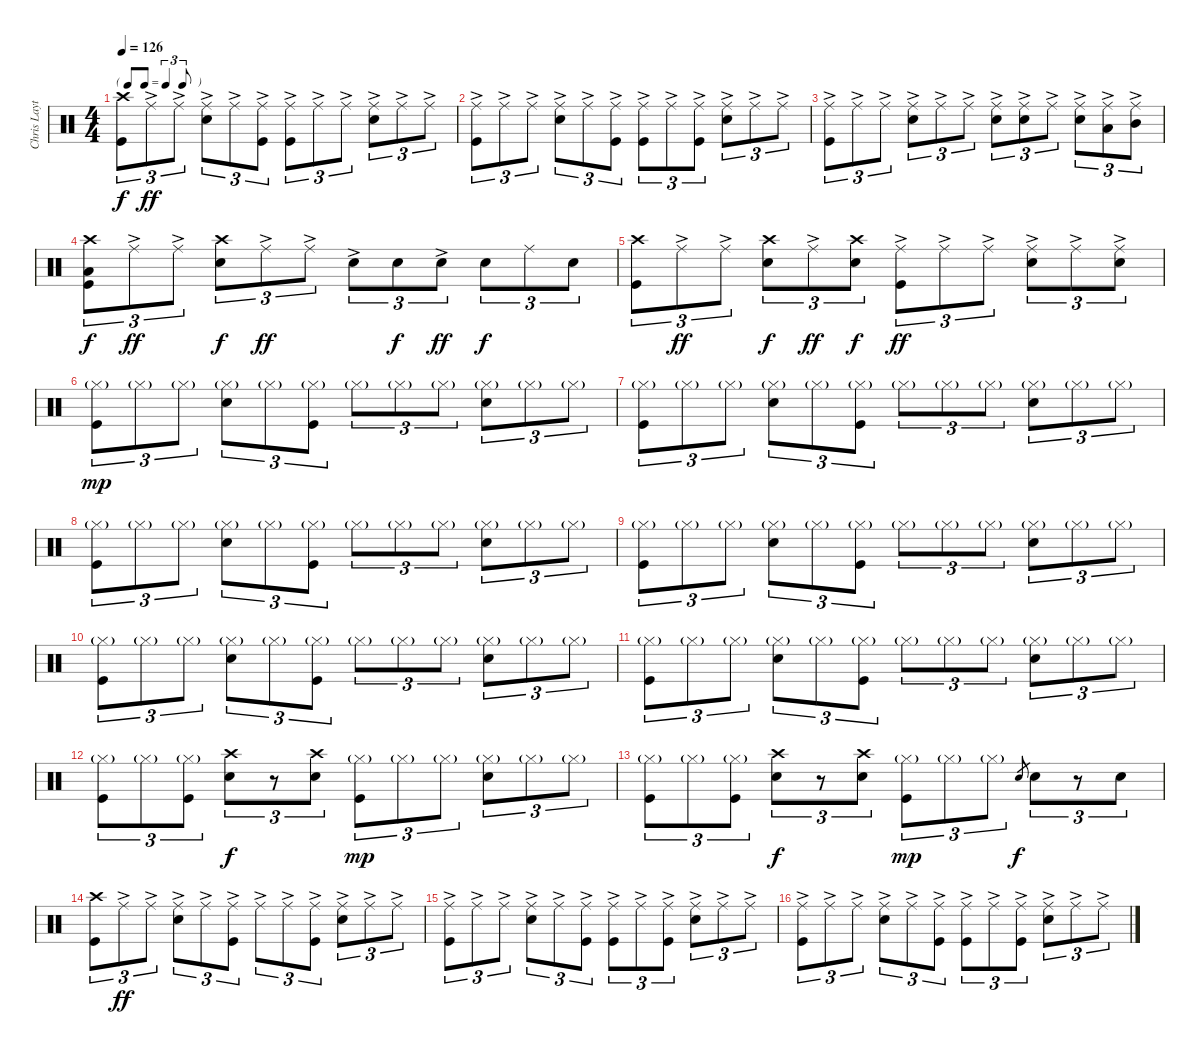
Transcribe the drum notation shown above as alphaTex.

\track ("Chris Layton" "Chris Layt") {instrument percussion}
\staff {score}
\articulation defaults
\ts (4 4)
\tf triplet8th
\tempo 126
\clef neutral
\ks c
("Crash high (hit)" "Kick (hit)").8{tu (3 2) dy f} "Ride (middle)"{ac}.8{tu (3 2) dy ff} "Ride (middle)"{ac}.8{tu (3 2)} ("Ride (middle)"{ac} "Electric Snare (hit)").8{tu (3 2)} "Ride (middle)"{ac}.8{tu (3 2)} ("Ride (middle)"{ac} "Kick (hit)").8{tu (3 2)} ("Ride (middle)"{ac} "Kick (hit)").8{tu (3 2)} "Ride (middle)"{ac}.8{tu (3 2)} "Ride (middle)"{ac}.8{tu (3 2)} ("Ride (middle)"{ac} "Electric Snare (hit)").8{tu (3 2)} "Ride (middle)"{ac}.8{tu (3 2)} "Ride (middle)"{ac}.8{tu (3 2)} |
("Ride (middle)"{ac} "Kick (hit)").8{tu (3 2)} "Ride (middle)"{ac}.8{tu (3 2)} "Ride (middle)"{ac}.8{tu (3 2)} ("Ride (middle)"{ac} "Electric Snare (hit)").8{tu (3 2)} "Ride (middle)"{ac}.8{tu (3 2)} ("Ride (middle)"{ac} "Kick (hit)").8{tu (3 2)} ("Ride (middle)"{ac} "Kick (hit)").8{tu (3 2)} "Ride (middle)"{ac}.8{tu (3 2)} ("Ride (middle)"{ac} "Kick (hit)").8{tu (3 2)} ("Ride (middle)"{ac} "Electric Snare (hit)").8{tu (3 2)} "Ride (middle)"{ac}.8{tu (3 2)} "Ride (middle)"{ac}.8{tu (3 2)} |
("Ride (middle)"{ac} "Kick (hit)").8{tu (3 2)} "Ride (middle)"{ac}.8{tu (3 2)} "Ride (middle)"{ac}.8{tu (3 2)} ("Ride (middle)"{ac} "Electric Snare (hit)").8{tu (3 2)} "Ride (middle)"{ac}.8{tu (3 2)} "Ride (middle)"{ac}.8{tu (3 2)} ("Ride (middle)"{ac} "Electric Snare (hit)"{ac}).8{tu (3 2)} ("Ride (middle)"{ac} "Electric Snare (hit)").8{tu (3 2)} "Ride (middle)"{ac}.8{tu (3 2)} ("Ride (middle)"{ac} "Electric Snare (hit)").8{tu (3 2)} ("Ride (middle)"{ac} "Low Tom (hit)"{ac}).8{tu (3 2)} ("Ride (middle)"{ac} "Mid Tom (hit)"{ac}).8{tu (3 2)} |
("Crash high (hit)" "Low Tom (hit)" "Kick (hit)").8{tu (3 2) dy f} "Ride (middle)"{ac}.8{tu (3 2) dy ff} "Ride (middle)"{ac}.8{tu (3 2)} ("Crash high (hit)" "Electric Snare (hit)").8{tu (3 2) dy f} "Ride (middle)"{ac}.8{tu (3 2) dy ff} "Ride (middle)"{ac}.8{tu (3 2)} "Electric Snare (hit)"{ac}.8{tu (3 2)} "Electric Snare (hit)".8{tu (3 2) dy f} "Electric Snare (hit)"{ac}.8{tu (3 2) dy ff} "Electric Snare (hit)".8{tu (3 2) dy f} "Ride (middle)".8{tu (3 2)} "Electric Snare (hit)".8{tu (3 2)} |
("Crash high (hit)" "Kick (hit)").8{tu (3 2)} "Ride (middle)"{ac}.8{tu (3 2) dy ff} "Ride (middle)"{ac}.8{tu (3 2)} ("Crash high (hit)" "Electric Snare (hit)").8{tu (3 2) dy f} "Ride (middle)"{ac}.8{tu (3 2) dy ff} ("Crash high (hit)" "Electric Snare (hit)").8{tu (3 2) dy f} ("Ride (middle)"{ac} "Kick (hit)").8{tu (3 2) dy ff} "Ride (middle)"{ac}.8{tu (3 2)} "Ride (middle)"{ac}.8{tu (3 2)} ("Ride (middle)"{ac} "Electric Snare (hit)").8{tu (3 2)} "Ride (middle)"{ac}.8{tu (3 2)} ("Ride (middle)"{ac} "Electric Snare (hit)").8{tu (3 2)} |
("Hi-Hat (closed)"{g} "Kick (hit)").8{tu (3 2) dy mp} "Hi-Hat (closed)"{g}.8{tu (3 2)} "Hi-Hat (closed)"{g}.8{tu (3 2)} ("Hi-Hat (closed)"{g} "Electric Snare (hit)").8{tu (3 2)} "Hi-Hat (closed)"{g}.8{tu (3 2)} ("Hi-Hat (closed)"{g} "Kick (hit)").8{tu (3 2)} "Hi-Hat (closed)"{g}.8{tu (3 2)} "Hi-Hat (closed)"{g}.8{tu (3 2)} "Hi-Hat (closed)"{g}.8{tu (3 2)} ("Hi-Hat (closed)"{g} "Electric Snare (hit)").8{tu (3 2)} "Hi-Hat (closed)"{g}.8{tu (3 2)} "Hi-Hat (closed)"{g}.8{tu (3 2)} |
("Hi-Hat (closed)"{g} "Kick (hit)").8{tu (3 2)} "Hi-Hat (closed)"{g}.8{tu (3 2)} "Hi-Hat (closed)"{g}.8{tu (3 2)} ("Hi-Hat (closed)"{g} "Electric Snare (hit)").8{tu (3 2)} "Hi-Hat (closed)"{g}.8{tu (3 2)} ("Hi-Hat (closed)"{g} "Kick (hit)").8{tu (3 2)} "Hi-Hat (closed)"{g}.8{tu (3 2)} "Hi-Hat (closed)"{g}.8{tu (3 2)} "Hi-Hat (closed)"{g}.8{tu (3 2)} ("Hi-Hat (closed)"{g} "Electric Snare (hit)").8{tu (3 2)} "Hi-Hat (closed)"{g}.8{tu (3 2)} "Hi-Hat (closed)"{g}.8{tu (3 2)} |
("Hi-Hat (closed)"{g} "Kick (hit)").8{tu (3 2)} "Hi-Hat (closed)"{g}.8{tu (3 2)} "Hi-Hat (closed)"{g}.8{tu (3 2)} ("Hi-Hat (closed)"{g} "Electric Snare (hit)").8{tu (3 2)} "Hi-Hat (closed)"{g}.8{tu (3 2)} ("Hi-Hat (closed)"{g} "Kick (hit)").8{tu (3 2)} "Hi-Hat (closed)"{g}.8{tu (3 2)} "Hi-Hat (closed)"{g}.8{tu (3 2)} "Hi-Hat (closed)"{g}.8{tu (3 2)} ("Hi-Hat (closed)"{g} "Electric Snare (hit)").8{tu (3 2)} "Hi-Hat (closed)"{g}.8{tu (3 2)} "Hi-Hat (closed)"{g}.8{tu (3 2)} |
("Hi-Hat (closed)"{g} "Kick (hit)").8{tu (3 2)} "Hi-Hat (closed)"{g}.8{tu (3 2)} "Hi-Hat (closed)"{g}.8{tu (3 2)} ("Hi-Hat (closed)"{g} "Electric Snare (hit)").8{tu (3 2)} "Hi-Hat (closed)"{g}.8{tu (3 2)} ("Hi-Hat (closed)"{g} "Kick (hit)").8{tu (3 2)} "Hi-Hat (closed)"{g}.8{tu (3 2)} "Hi-Hat (closed)"{g}.8{tu (3 2)} "Hi-Hat (closed)"{g}.8{tu (3 2)} ("Hi-Hat (closed)"{g} "Electric Snare (hit)").8{tu (3 2)} "Hi-Hat (closed)"{g}.8{tu (3 2)} "Hi-Hat (closed)"{g}.8{tu (3 2)} |
("Hi-Hat (closed)"{g} "Kick (hit)").8{tu (3 2)} "Hi-Hat (closed)"{g}.8{tu (3 2)} "Hi-Hat (closed)"{g}.8{tu (3 2)} ("Hi-Hat (closed)"{g} "Electric Snare (hit)").8{tu (3 2)} "Hi-Hat (closed)"{g}.8{tu (3 2)} ("Hi-Hat (closed)"{g} "Kick (hit)").8{tu (3 2)} "Hi-Hat (closed)"{g}.8{tu (3 2)} "Hi-Hat (closed)"{g}.8{tu (3 2)} "Hi-Hat (closed)"{g}.8{tu (3 2)} ("Hi-Hat (closed)"{g} "Electric Snare (hit)").8{tu (3 2)} "Hi-Hat (closed)"{g}.8{tu (3 2)} "Hi-Hat (closed)"{g}.8{tu (3 2)} |
("Hi-Hat (closed)"{g} "Kick (hit)").8{tu (3 2)} "Hi-Hat (closed)"{g}.8{tu (3 2)} "Hi-Hat (closed)"{g}.8{tu (3 2)} ("Hi-Hat (closed)"{g} "Electric Snare (hit)").8{tu (3 2)} "Hi-Hat (closed)"{g}.8{tu (3 2)} ("Hi-Hat (closed)"{g} "Kick (hit)").8{tu (3 2)} "Hi-Hat (closed)"{g}.8{tu (3 2)} "Hi-Hat (closed)"{g}.8{tu (3 2)} "Hi-Hat (closed)"{g}.8{tu (3 2)} ("Hi-Hat (closed)"{g} "Electric Snare (hit)").8{tu (3 2)} "Hi-Hat (closed)"{g}.8{tu (3 2)} "Hi-Hat (closed)"{g}.8{tu (3 2)} |
("Hi-Hat (closed)"{g} "Kick (hit)").8{tu (3 2)} "Hi-Hat (closed)"{g}.8{tu (3 2)} ("Hi-Hat (closed)"{g} "Kick (hit)").8{tu (3 2)} ("Crash high (hit)" "Electric Snare (hit)").8{tu (3 2) dy f} r.8{tu (3 2)} ("Crash high (hit)" "Electric Snare (hit)").8{tu (3 2)} ("Hi-Hat (closed)"{g} "Kick (hit)").8{tu (3 2) dy mp} "Hi-Hat (closed)"{g}.8{tu (3 2)} "Hi-Hat (closed)"{g}.8{tu (3 2)} ("Hi-Hat (closed)"{g} "Electric Snare (hit)").8{tu (3 2)} "Hi-Hat (closed)"{g}.8{tu (3 2)} "Hi-Hat (closed)"{g}.8{tu (3 2)} |
("Hi-Hat (closed)"{g} "Kick (hit)").8{tu (3 2)} "Hi-Hat (closed)"{g}.8{tu (3 2)} ("Hi-Hat (closed)"{g} "Kick (hit)").8{tu (3 2)} ("Crash high (hit)" "Electric Snare (hit)").8{tu (3 2) dy f} r.8{tu (3 2)} ("Crash high (hit)" "Electric Snare (hit)").8{tu (3 2)} ("Hi-Hat (closed)"{g} "Kick (hit)").8{tu (3 2) dy mp} "Hi-Hat (closed)"{g}.8{tu (3 2)} "Hi-Hat (closed)"{g}.8{tu (3 2)} "Electric Snare (hit)".8{gr dy f} "Electric Snare (hit)".8{tu (3 2)} r.8{tu (3 2)} "Electric Snare (hit)".8{tu (3 2)} |
("Crash high (hit)" "Kick (hit)").8{tu (3 2)} "Ride (middle)"{ac}.8{tu (3 2) dy ff} "Ride (middle)"{ac}.8{tu (3 2)} ("Ride (middle)"{ac} "Electric Snare (hit)").8{tu (3 2)} "Ride (middle)"{ac}.8{tu (3 2)} ("Ride (middle)"{ac} "Kick (hit)").8{tu (3 2)} "Ride (middle)"{ac}.8{tu (3 2)} "Ride (middle)"{ac}.8{tu (3 2)} ("Ride (middle)"{ac} "Kick (hit)").8{tu (3 2)} ("Ride (middle)"{ac} "Electric Snare (hit)").8{tu (3 2)} "Ride (middle)"{ac}.8{tu (3 2)} "Ride (middle)"{ac}.8{tu (3 2)} |
("Ride (middle)"{ac} "Kick (hit)").8{tu (3 2)} "Ride (middle)"{ac}.8{tu (3 2)} "Ride (middle)"{ac}.8{tu (3 2)} ("Ride (middle)"{ac} "Electric Snare (hit)").8{tu (3 2)} "Ride (middle)"{ac}.8{tu (3 2)} ("Ride (middle)"{ac} "Kick (hit)").8{tu (3 2)} ("Ride (middle)"{ac} "Kick (hit)").8{tu (3 2)} "Ride (middle)"{ac}.8{tu (3 2)} ("Ride (middle)"{ac} "Kick (hit)").8{tu (3 2)} ("Ride (middle)"{ac} "Electric Snare (hit)").8{tu (3 2)} "Ride (middle)"{ac}.8{tu (3 2)} "Ride (middle)"{ac}.8{tu (3 2)} |
("Ride (middle)"{ac} "Kick (hit)").8{tu (3 2)} "Ride (middle)"{ac}.8{tu (3 2)} "Ride (middle)"{ac}.8{tu (3 2)} ("Ride (middle)"{ac} "Electric Snare (hit)").8{tu (3 2)} "Ride (middle)"{ac}.8{tu (3 2)} ("Ride (middle)"{ac} "Kick (hit)").8{tu (3 2)} ("Ride (middle)"{ac} "Kick (hit)").8{tu (3 2)} "Ride (middle)"{ac}.8{tu (3 2)} ("Ride (middle)"{ac} "Kick (hit)").8{tu (3 2)} ("Ride (middle)"{ac} "Electric Snare (hit)").8{tu (3 2)} "Ride (middle)"{ac}.8{tu (3 2)} "Ride (middle)"{ac}.8{tu (3 2)}
